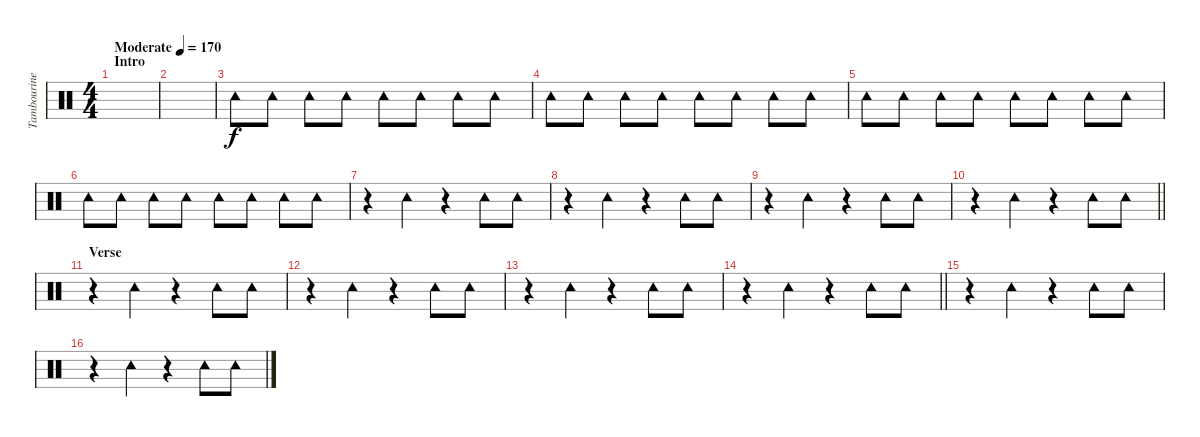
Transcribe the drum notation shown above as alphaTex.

\track ("Tambourine" "Tambourine") {instrument percussion}
\staff {score}
\articulation defaults
\ts (4 4)
\section ("" "Intro")
\tempo (170 "Moderate")
\clef neutral
\ks c
|
|
"Tambourine (hit)".8 "Tambourine (hit)".8 "Tambourine (hit)".8 "Tambourine (hit)".8 "Tambourine (hit)".8 "Tambourine (hit)".8 "Tambourine (hit)".8 "Tambourine (hit)".8 |
"Tambourine (hit)".8 "Tambourine (hit)".8 "Tambourine (hit)".8 "Tambourine (hit)".8 "Tambourine (hit)".8 "Tambourine (hit)".8 "Tambourine (hit)".8 "Tambourine (hit)".8 |
"Tambourine (hit)".8 "Tambourine (hit)".8 "Tambourine (hit)".8 "Tambourine (hit)".8 "Tambourine (hit)".8 "Tambourine (hit)".8 "Tambourine (hit)".8 "Tambourine (hit)".8 |
"Tambourine (hit)".8 "Tambourine (hit)".8 "Tambourine (hit)".8 "Tambourine (hit)".8 "Tambourine (hit)".8 "Tambourine (hit)".8 "Tambourine (hit)".8 "Tambourine (hit)".8 |
r.4 "Tambourine (hit)".4 r.4 "Tambourine (hit)".8 "Tambourine (hit)".8 |
r.4 "Tambourine (hit)".4 r.4 "Tambourine (hit)".8 "Tambourine (hit)".8 |
r.4 "Tambourine (hit)".4 r.4 "Tambourine (hit)".8 "Tambourine (hit)".8 |
\barLineRight lightlight
r.4 "Tambourine (hit)".4 r.4 "Tambourine (hit)".8 "Tambourine (hit)".8 |
\section ("" "Verse")
r.4 "Tambourine (hit)".4 r.4 "Tambourine (hit)".8 "Tambourine (hit)".8 |
r.4 "Tambourine (hit)".4 r.4 "Tambourine (hit)".8 "Tambourine (hit)".8 |
r.4 "Tambourine (hit)".4 r.4 "Tambourine (hit)".8 "Tambourine (hit)".8 |
\barLineRight lightlight
r.4 "Tambourine (hit)".4 r.4 "Tambourine (hit)".8 "Tambourine (hit)".8 |
r.4 "Tambourine (hit)".4 r.4 "Tambourine (hit)".8 "Tambourine (hit)".8 |
r.4 "Tambourine (hit)".4 r.4 "Tambourine (hit)".8 "Tambourine (hit)".8
